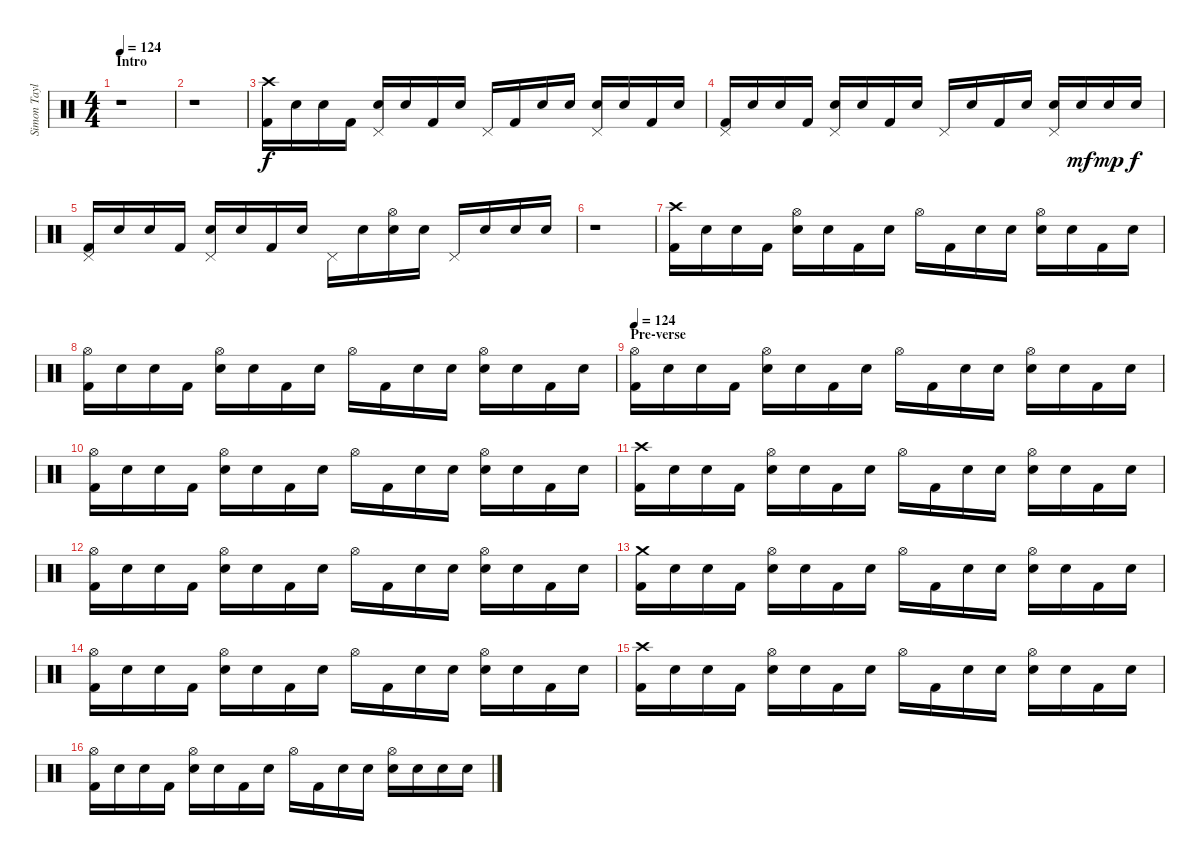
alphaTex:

\track ("Simon Taylor - Drums" "Simon Tayl") {instrument percussion}
\staff {score}
\articulation defaults
\ts (4 4)
\section ("" "Intro")
\tempo 124
\clef neutral
\ks c
r.1{dy f volume 16 balance 8} |
r.1 |
("Crash high (hit)" "Kick (hit) 2").16 "Snare (hit)".16 "Snare (hit)".16 "Kick (hit) 2".16 ("Pedal Hi-Hat (hit)" "Electric Snare (hit)").16 "Snare (hit)".16 "Kick (hit) 2".16 "Snare (hit)".16 "Pedal Hi-Hat (hit)".16 "Kick (hit) 2".16 "Snare (hit)".16 "Snare (hit)".16 ("Pedal Hi-Hat (hit)" "Electric Snare (hit)").16 "Snare (hit)".16 "Kick (hit) 2".16 "Snare (hit)".16 |
("Pedal Hi-Hat (hit)" "Kick (hit) 2").16 "Snare (hit)".16 "Snare (hit)".16 "Kick (hit) 2".16 ("Pedal Hi-Hat (hit)" "Electric Snare (hit)").16 "Snare (hit)".16 "Kick (hit) 2".16 "Snare (hit)".16 "Pedal Hi-Hat (hit)".16 "Snare (hit)".16 "Kick (hit) 2".16 "Snare (hit)".16 ("Pedal Hi-Hat (hit)" "Electric Snare (hit)").16 "Electric Snare (hit)".16{dy mf} "Electric Snare (hit)".16{dy mp} "Snare (hit)".16{dy f} |
("Pedal Hi-Hat (hit)" "Kick (hit) 2").16 "Snare (hit)".16 "Snare (hit)".16 "Kick (hit) 2".16 ("Pedal Hi-Hat (hit)" "Electric Snare (hit)").16 "Snare (hit)".16 "Kick (hit) 2".16 "Snare (hit)".16 "Pedal Hi-Hat (hit)".16 "Snare (hit)".16 ("Hi-Hat (open)" "Electric Snare (hit)").16 "Snare (hit)".16 "Pedal Hi-Hat (hit)".16 "Snare (hit)".16 "Snare (hit)".16 "Snare (hit)".16 |
r.1 |
("Crash high (hit)" "Kick (hit) 2").16 "Snare (hit)".16 "Snare (hit)".16 "Kick (hit) 2".16 ("Hi-Hat (open)" "Electric Snare (hit)").16 "Snare (hit)".16 "Kick (hit) 2".16 "Snare (hit)".16 "Hi-Hat (open)".16 "Kick (hit) 2".16 "Snare (hit)".16 "Snare (hit)".16 ("Hi-Hat (open)" "Electric Snare (hit)").16 "Snare (hit)".16 "Kick (hit) 2".16 "Snare (hit)".16 |
("Hi-Hat (open)" "Kick (hit) 2").16 "Snare (hit)".16 "Snare (hit)".16 "Kick (hit) 2".16 ("Hi-Hat (open)" "Electric Snare (hit)").16 "Snare (hit)".16 "Kick (hit) 2".16 "Snare (hit)".16 "Hi-Hat (open)".16 "Kick (hit) 2".16 "Snare (hit)".16 "Snare (hit)".16 ("Hi-Hat (open)" "Electric Snare (hit)").16 "Snare (hit)".16 "Kick (hit) 2".16 "Snare (hit)".16 |
\section ("" "Pre-verse")
\tempo 124
("Hi-Hat (open)" "Kick (hit) 2").16{volume 16 balance 8} "Snare (hit)".16 "Snare (hit)".16 "Kick (hit) 2".16 ("Hi-Hat (open)" "Electric Snare (hit)").16 "Snare (hit)".16 "Kick (hit) 2".16 "Snare (hit)".16 "Hi-Hat (open)".16 "Kick (hit) 2".16 "Snare (hit)".16 "Snare (hit)".16 ("Hi-Hat (open)" "Electric Snare (hit)").16 "Snare (hit)".16 "Kick (hit) 2".16 "Snare (hit)".16 |
("Hi-Hat (open)" "Kick (hit) 2").16 "Snare (hit)".16 "Snare (hit)".16 "Kick (hit) 2".16 ("Hi-Hat (open)" "Electric Snare (hit)").16 "Snare (hit)".16 "Kick (hit) 2".16 "Snare (hit)".16 "Hi-Hat (open)".16 "Kick (hit) 2".16 "Snare (hit)".16 "Snare (hit)".16 ("Hi-Hat (open)" "Electric Snare (hit)").16 "Snare (hit)".16 "Kick (hit) 2".16 "Snare (hit)".16 |
("Crash high (hit)" "Kick (hit) 2").16 "Snare (hit)".16 "Snare (hit)".16 "Kick (hit) 2".16 ("Hi-Hat (open)" "Electric Snare (hit)").16 "Snare (hit)".16 "Kick (hit) 2".16 "Snare (hit)".16 "Hi-Hat (open)".16 "Kick (hit) 2".16 "Snare (hit)".16 "Snare (hit)".16 ("Hi-Hat (open)" "Electric Snare (hit)").16 "Snare (hit)".16 "Kick (hit) 2".16 "Snare (hit)".16 |
("Hi-Hat (open)" "Kick (hit) 2").16 "Snare (hit)".16 "Snare (hit)".16 "Kick (hit) 2".16 ("Hi-Hat (open)" "Electric Snare (hit)").16 "Snare (hit)".16 "Kick (hit) 2".16 "Snare (hit)".16 "Hi-Hat (open)".16 "Kick (hit) 2".16 "Snare (hit)".16 "Snare (hit)".16 ("Hi-Hat (open)" "Electric Snare (hit)").16 "Snare (hit)".16 "Kick (hit) 2".16 "Snare (hit)".16 |
("Crash medium (hit)" "Kick (hit) 2").16 "Snare (hit)".16 "Snare (hit)".16 "Kick (hit) 2".16 ("Hi-Hat (open)" "Electric Snare (hit)").16 "Snare (hit)".16 "Kick (hit) 2".16 "Snare (hit)".16 "Hi-Hat (open)".16 "Kick (hit) 2".16 "Snare (hit)".16 "Snare (hit)".16 ("Hi-Hat (open)" "Electric Snare (hit)").16 "Snare (hit)".16 "Kick (hit) 2".16 "Snare (hit)".16 |
("Hi-Hat (open)" "Kick (hit) 2").16 "Snare (hit)".16 "Snare (hit)".16 "Kick (hit) 2".16 ("Hi-Hat (open)" "Electric Snare (hit)").16 "Snare (hit)".16 "Kick (hit) 2".16 "Snare (hit)".16 "Hi-Hat (open)".16 "Kick (hit) 2".16 "Snare (hit)".16 "Snare (hit)".16 ("Hi-Hat (open)" "Electric Snare (hit)").16 "Snare (hit)".16 "Kick (hit) 2".16 "Snare (hit)".16 |
("Crash high (hit)" "Kick (hit) 2").16 "Snare (hit)".16 "Snare (hit)".16 "Kick (hit) 2".16 ("Hi-Hat (open)" "Electric Snare (hit)").16 "Snare (hit)".16 "Kick (hit) 2".16 "Snare (hit)".16 "Hi-Hat (open)".16 "Kick (hit) 2".16 "Snare (hit)".16 "Snare (hit)".16 ("Hi-Hat (open)" "Electric Snare (hit)").16 "Snare (hit)".16 "Kick (hit) 2".16 "Snare (hit)".16 |
("Hi-Hat (open)" "Kick (hit) 2").16 "Snare (hit)".16 "Snare (hit)".16 "Kick (hit) 2".16 ("Hi-Hat (open)" "Electric Snare (hit)").16 "Snare (hit)".16 "Kick (hit) 2".16 "Snare (hit)".16 "Hi-Hat (open)".16 "Kick (hit) 2".16 "Snare (hit)".16 "Snare (hit)".16 ("Hi-Hat (open)" "Electric Snare (hit)").16 "Electric Snare (hit)".16 "Electric Snare (hit)".16 "Snare (hit)".16
